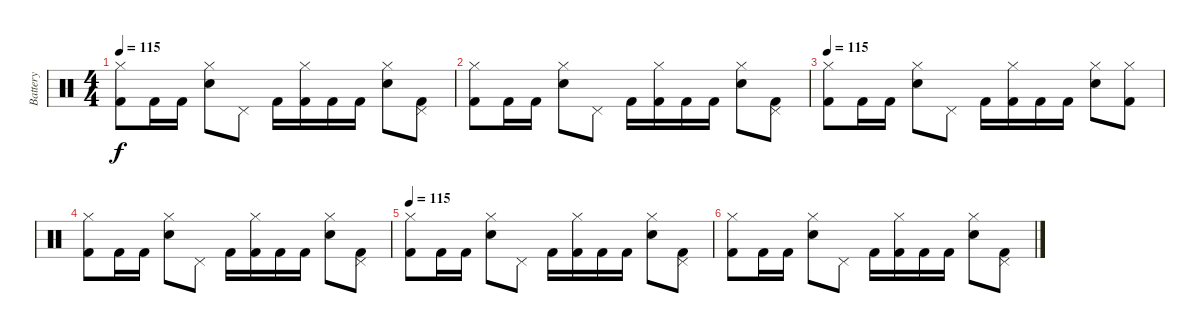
\track ("Battery" "Battery") {instrument percussion}
\staff {score}
\articulation defaults
\ts (4 4)
\tempo 115
\clef neutral
\ks c
("Hi-Hat (closed)" "Kick (hit) 2").8{dy f} "Kick (hit) 2".16 "Kick (hit) 2".16 ("Hi-Hat (closed)" "Snare (hit) 2").8 "Pedal Hi-Hat (hit)".8 "Kick (hit) 2".16 ("Hi-Hat (closed)" "Kick (hit) 2").16 "Kick (hit) 2".16 "Kick (hit) 2".16 ("Hi-Hat (closed)" "Snare (hit) 2").8 ("Pedal Hi-Hat (hit)" "Kick (hit) 2").8 |
("Hi-Hat (closed)" "Kick (hit) 2").8 "Kick (hit) 2".16 "Kick (hit) 2".16 ("Hi-Hat (closed)" "Snare (hit) 2").8 "Pedal Hi-Hat (hit)".8 "Kick (hit) 2".16 ("Hi-Hat (closed)" "Kick (hit) 2").16 "Kick (hit) 2".16 "Kick (hit) 2".16 ("Hi-Hat (closed)" "Snare (hit) 2").8 ("Pedal Hi-Hat (hit)" "Kick (hit) 2").8 |
\tempo 115
("Hi-Hat (closed)" "Kick (hit) 2").8 "Kick (hit) 2".16 "Kick (hit) 2".16 ("Hi-Hat (closed)" "Snare (hit) 2").8 "Pedal Hi-Hat (hit)".8 "Kick (hit) 2".16 ("Hi-Hat (closed)" "Kick (hit) 2").16 "Kick (hit) 2".16 "Kick (hit) 2".16 ("Hi-Hat (closed)" "Snare (hit) 2").8 ("Hi-Hat (closed)" "Kick (hit) 2").8 |
("Hi-Hat (closed)" "Kick (hit) 2").8 "Kick (hit) 2".16 "Kick (hit) 2".16 ("Hi-Hat (closed)" "Snare (hit) 2").8 "Pedal Hi-Hat (hit)".8 "Kick (hit) 2".16 ("Hi-Hat (closed)" "Kick (hit) 2").16 "Kick (hit) 2".16 "Kick (hit) 2".16 ("Hi-Hat (closed)" "Snare (hit) 2").8 ("Pedal Hi-Hat (hit)" "Kick (hit) 2").8 |
\tempo 115
("Hi-Hat (closed)" "Kick (hit) 2").8 "Kick (hit) 2".16 "Kick (hit) 2".16 ("Hi-Hat (closed)" "Snare (hit) 2").8 "Pedal Hi-Hat (hit)".8 "Kick (hit) 2".16 ("Hi-Hat (closed)" "Kick (hit) 2").16 "Kick (hit) 2".16 "Kick (hit) 2".16 ("Hi-Hat (closed)" "Snare (hit) 2").8 ("Pedal Hi-Hat (hit)" "Kick (hit) 2").8 |
("Hi-Hat (closed)" "Kick (hit) 2").8 "Kick (hit) 2".16 "Kick (hit) 2".16 ("Hi-Hat (closed)" "Snare (hit) 2").8 "Pedal Hi-Hat (hit)".8 "Kick (hit) 2".16 ("Hi-Hat (closed)" "Kick (hit) 2").16 "Kick (hit) 2".16 "Kick (hit) 2".16 ("Hi-Hat (closed)" "Snare (hit) 2").8 ("Pedal Hi-Hat (hit)" "Kick (hit) 2").8
